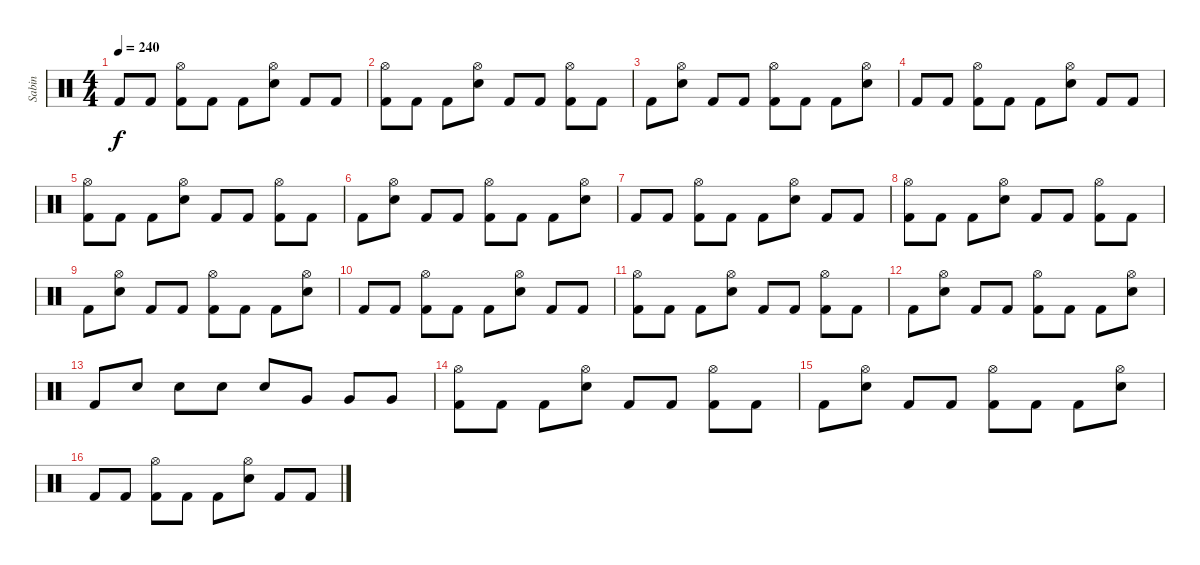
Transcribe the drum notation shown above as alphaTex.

\track ("Sabin" "Sabin") {instrument percussion}
\staff {score}
\articulation defaults
\ts (4 4)
\tempo 240
\clef neutral
\ks c "Kick (hit) 2".8{dy f} "Kick (hit) 2".8
("Hi-Hat (open)" "Kick (hit) 2").8 "Kick (hit) 2".8 "Kick (hit) 2".8 ("Hi-Hat (open)" "Snare (hit) 2").8 "Kick (hit) 2".8 "Kick (hit) 2".8 |
("Hi-Hat (open)" "Kick (hit) 2").8 "Kick (hit) 2".8 "Kick (hit) 2".8 ("Hi-Hat (open)" "Snare (hit) 2").8 "Kick (hit) 2".8 "Kick (hit) 2".8 ("Hi-Hat (open)" "Kick (hit) 2").8 "Kick (hit) 2".8 |
"Kick (hit) 2".8 ("Hi-Hat (open)" "Snare (hit) 2").8 "Kick (hit) 2".8 "Kick (hit) 2".8 ("Hi-Hat (open)" "Kick (hit) 2").8 "Kick (hit) 2".8 "Kick (hit) 2".8 ("Hi-Hat (open)" "Snare (hit) 2").8 |
"Kick (hit) 2".8 "Kick (hit) 2".8 ("Hi-Hat (open)" "Kick (hit) 2").8 "Kick (hit) 2".8 "Kick (hit) 2".8 ("Hi-Hat (open)" "Snare (hit) 2").8 "Kick (hit) 2".8 "Kick (hit) 2".8 |
("Hi-Hat (open)" "Kick (hit) 2").8 "Kick (hit) 2".8 "Kick (hit) 2".8 ("Hi-Hat (open)" "Snare (hit) 2").8 "Kick (hit) 2".8 "Kick (hit) 2".8 ("Hi-Hat (open)" "Kick (hit) 2").8 "Kick (hit) 2".8 |
"Kick (hit) 2".8 ("Hi-Hat (open)" "Snare (hit) 2").8 "Kick (hit) 2".8 "Kick (hit) 2".8 ("Hi-Hat (open)" "Kick (hit) 2").8 "Kick (hit) 2".8 "Kick (hit) 2".8 ("Hi-Hat (open)" "Snare (hit) 2").8 |
"Kick (hit) 2".8 "Kick (hit) 2".8 ("Hi-Hat (open)" "Kick (hit) 2").8 "Kick (hit) 2".8 "Kick (hit) 2".8 ("Hi-Hat (open)" "Snare (hit) 2").8 "Kick (hit) 2".8 "Kick (hit) 2".8 |
("Hi-Hat (open)" "Kick (hit) 2").8 "Kick (hit) 2".8 "Kick (hit) 2".8 ("Hi-Hat (open)" "Snare (hit) 2").8 "Kick (hit) 2".8 "Kick (hit) 2".8 ("Hi-Hat (open)" "Kick (hit) 2").8 "Kick (hit) 2".8 |
"Kick (hit) 2".8 ("Hi-Hat (open)" "Snare (hit) 2").8 "Kick (hit) 2".8 "Kick (hit) 2".8 ("Hi-Hat (open)" "Kick (hit) 2").8 "Kick (hit) 2".8 "Kick (hit) 2".8 ("Hi-Hat (open)" "Snare (hit) 2").8 |
"Kick (hit) 2".8 "Kick (hit) 2".8 ("Hi-Hat (open)" "Kick (hit) 2").8 "Kick (hit) 2".8 "Kick (hit) 2".8 ("Hi-Hat (open)" "Snare (hit) 2").8 "Kick (hit) 2".8 "Kick (hit) 2".8 |
("Hi-Hat (open)" "Kick (hit) 2").8 "Kick (hit) 2".8 "Kick (hit) 2".8 ("Hi-Hat (open)" "Snare (hit) 2").8 "Kick (hit) 2".8 "Kick (hit) 2".8 ("Hi-Hat (open)" "Kick (hit) 2").8 "Kick (hit) 2".8 |
"Kick (hit) 2".8 ("Hi-Hat (open)" "Snare (hit) 2").8 "Kick (hit) 2".8 "Kick (hit) 2".8 ("Hi-Hat (open)" "Kick (hit) 2").8 "Kick (hit) 2".8 "Kick (hit) 2".8 ("Hi-Hat (open)" "Snare (hit) 2").8 |
"Kick (hit) 2".8 "Snare (hit) 2".8 "Snare (hit) 2".8 "Snare (hit) 2".8 "Snare (hit) 2".8 "Very Low Tom (hit)".8 "Very Low Tom (hit)".8 "Very Low Tom (hit)".8 |
("Hi-Hat (open)" "Kick (hit) 2").8 "Kick (hit) 2".8 "Kick (hit) 2".8 ("Hi-Hat (open)" "Snare (hit) 2").8 "Kick (hit) 2".8 "Kick (hit) 2".8 ("Hi-Hat (open)" "Kick (hit) 2").8 "Kick (hit) 2".8 |
"Kick (hit) 2".8 ("Hi-Hat (open)" "Snare (hit) 2").8 "Kick (hit) 2".8 "Kick (hit) 2".8 ("Hi-Hat (open)" "Kick (hit) 2").8 "Kick (hit) 2".8 "Kick (hit) 2".8 ("Hi-Hat (open)" "Snare (hit) 2").8 |
"Kick (hit) 2".8 "Kick (hit) 2".8 ("Hi-Hat (open)" "Kick (hit) 2").8 "Kick (hit) 2".8 "Kick (hit) 2".8 ("Hi-Hat (open)" "Snare (hit) 2").8 "Kick (hit) 2".8 "Kick (hit) 2".8
